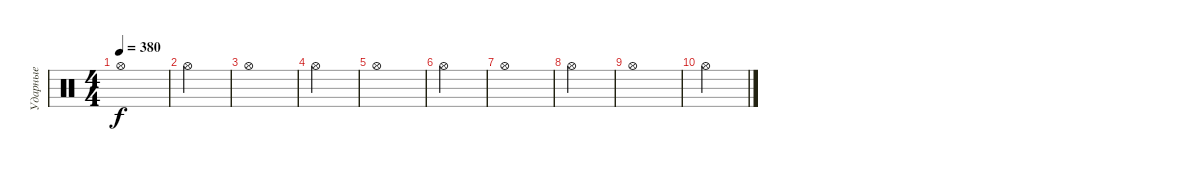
\track ("Ударные" "Ударные") {instrument percussion}
\staff {score}
\articulation defaults
\ts (4 4)
\tempo 380
\clef neutral
\ks c "Hi-Hat (open)".1{dy f}
|
"Hi-Hat (open)".2 |
"Hi-Hat (open)".1 |
"Hi-Hat (open)".2 |
"Hi-Hat (open)".1 |
"Hi-Hat (open)".2 |
"Hi-Hat (open)".1 |
"Hi-Hat (open)".2 |
"Hi-Hat (open)".1 |
"Hi-Hat (open)".2
